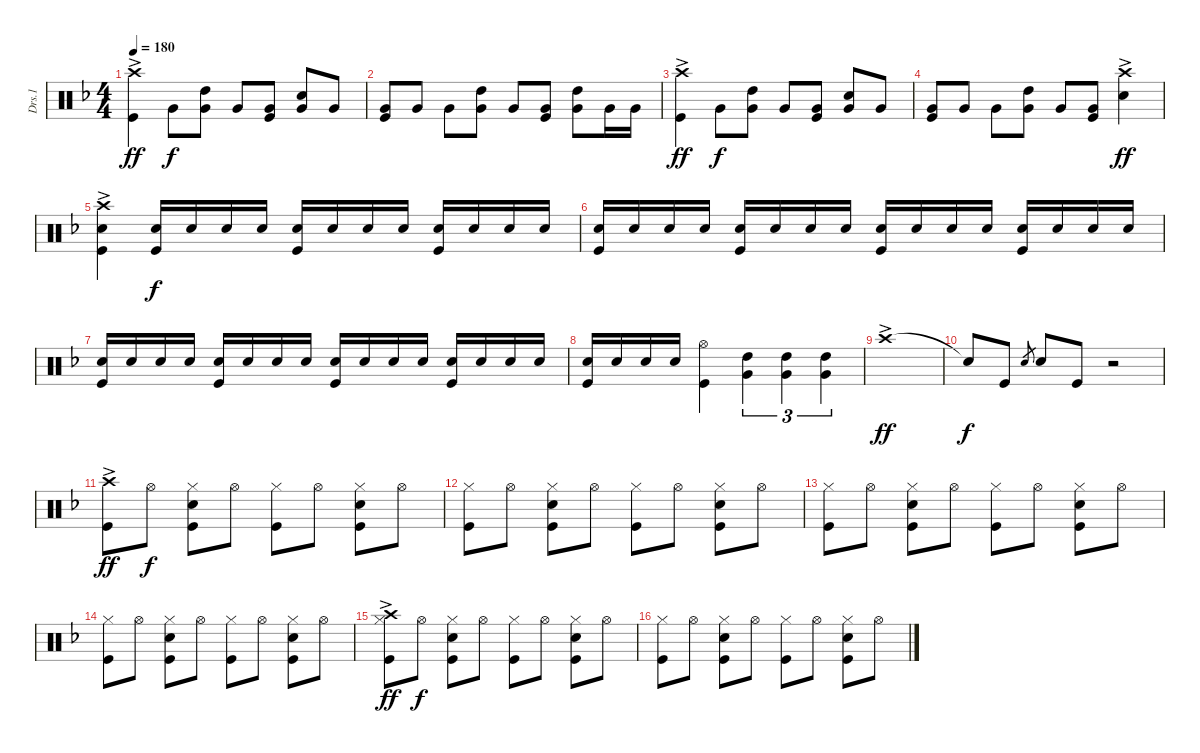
\track ("Drs.1" "Drs.1") {instrument percussion}
\staff {score}
\articulation defaults
\ts (4 4)
\tempo 180
\clef neutral
\ks f
("Crash high (hit)"{ac} "Kick (hit)").4{dy ff} "Very Low Tom (hit)".8{dy f} ("High Tom (hit)" "Very Low Tom (hit)").8 "Very Low Tom (hit)".8 ("Very Low Tom (hit)" "Kick (hit)").8 ("Snare (hit) 2" "Very Low Tom (hit)").8 "Very Low Tom (hit)".8 |
("Very Low Tom (hit)" "Kick (hit)").8 "Very Low Tom (hit)".8 "Very Low Tom (hit)".8 ("High Tom (hit)" "Very Low Tom (hit)").8 "Very Low Tom (hit)".8 ("Very Low Tom (hit)" "Kick (hit)").8 ("High Tom (hit)" "Very Low Tom (hit)").8 "Very Low Tom (hit)".16 "Very Low Tom (hit)".16 |
("Crash high (hit)"{ac} "Kick (hit)").4{dy ff} "Very Low Tom (hit)".8{dy f} ("High Tom (hit)" "Very Low Tom (hit)").8 "Very Low Tom (hit)".8 ("Very Low Tom (hit)" "Kick (hit)").8 ("Snare (hit) 2" "Very Low Tom (hit)").8 "Very Low Tom (hit)".8 |
("Very Low Tom (hit)" "Kick (hit)").8 "Very Low Tom (hit)".8 "Very Low Tom (hit)".8 ("High Tom (hit)" "Very Low Tom (hit)").8 "Very Low Tom (hit)".8 ("Very Low Tom (hit)" "Kick (hit)").8 ("Crash high (hit)"{ac} "Snare (hit) 2").4{dy ff} |
("Crash high (hit)"{ac} "Snare (hit) 2" "Kick (hit)").4 ("Snare (hit) 2" "Kick (hit)").16{dy f} "Snare (hit) 2".16 "Snare (hit) 2".16 "Snare (hit) 2".16 ("Snare (hit) 2" "Kick (hit)").16 "Snare (hit) 2".16 "Snare (hit) 2".16 "Snare (hit) 2".16 ("Snare (hit) 2" "Kick (hit)").16 "Snare (hit) 2".16 "Snare (hit) 2".16 "Snare (hit) 2".16 |
("Snare (hit) 2" "Kick (hit)").16 "Snare (hit) 2".16 "Snare (hit) 2".16 "Snare (hit) 2".16 ("Snare (hit) 2" "Kick (hit)").16 "Snare (hit) 2".16 "Snare (hit) 2".16 "Snare (hit) 2".16 ("Snare (hit) 2" "Kick (hit)").16 "Snare (hit) 2".16 "Snare (hit) 2".16 "Snare (hit) 2".16 ("Snare (hit) 2" "Kick (hit)").16 "Snare (hit) 2".16 "Snare (hit) 2".16 "Snare (hit) 2".16 |
("Snare (hit) 2" "Kick (hit)").16 "Snare (hit) 2".16 "Snare (hit) 2".16 "Snare (hit) 2".16 ("Snare (hit) 2" "Kick (hit)").16 "Snare (hit) 2".16 "Snare (hit) 2".16 "Snare (hit) 2".16 ("Snare (hit) 2" "Kick (hit)").16 "Snare (hit) 2".16 "Snare (hit) 2".16 "Snare (hit) 2".16 ("Snare (hit) 2" "Kick (hit)").16 "Snare (hit) 2".16 "Snare (hit) 2".16 "Snare (hit) 2".16 |
("Snare (hit) 2" "Kick (hit)").16 "Snare (hit) 2".16 "Snare (hit) 2".16 "Snare (hit) 2".16 ("Hi-Hat (open)" "Kick (hit)").4 ("High Tom (hit)" "Very Low Tom (hit)").4{tu (3 2)} ("High Tom (hit)" "Very Low Tom (hit)").4{tu (3 2)} ("High Tom (hit)" "Very Low Tom (hit)").4{tu (3 2)} |
"Crash high (hit)"{ac}.1{dy ff} |
"Snare (hit)"{t}.8{dy f} "Kick (hit)".8 "Snare (hit) 2".8{gr} "Snare (hit) 2".8 "Kick (hit)".8 r.2 |
("Crash high (hit)"{ac} "Kick (hit)").8{dy ff} "Hi-Hat (open)".8{dy f} ("Hi-Hat (closed)" "Snare (hit) 2" "Kick (hit)").8 "Hi-Hat (open)".8 ("Hi-Hat (closed)" "Kick (hit)").8 "Hi-Hat (open)".8 ("Hi-Hat (closed)" "Snare (hit) 2" "Kick (hit)").8 "Hi-Hat (open)".8 |
("Hi-Hat (closed)" "Kick (hit)").8 "Hi-Hat (open)".8 ("Hi-Hat (closed)" "Snare (hit) 2" "Kick (hit)").8 "Hi-Hat (open)".8 ("Hi-Hat (closed)" "Kick (hit)").8 "Hi-Hat (open)".8 ("Hi-Hat (closed)" "Snare (hit) 2" "Kick (hit)").8 "Hi-Hat (open)".8 |
("Hi-Hat (closed)" "Kick (hit)").8 "Hi-Hat (open)".8 ("Hi-Hat (closed)" "Snare (hit) 2" "Kick (hit)").8 "Hi-Hat (open)".8 ("Hi-Hat (closed)" "Kick (hit)").8 "Hi-Hat (open)".8 ("Hi-Hat (closed)" "Snare (hit) 2" "Kick (hit)").8 "Hi-Hat (open)".8 |
("Hi-Hat (closed)" "Kick (hit)").8 "Hi-Hat (open)".8 ("Hi-Hat (closed)" "Snare (hit) 2" "Kick (hit)").8 "Hi-Hat (open)".8 ("Hi-Hat (closed)" "Kick (hit)").8 "Hi-Hat (open)".8 ("Hi-Hat (closed)" "Snare (hit) 2" "Kick (hit)").8 "Hi-Hat (open)".8 |
("Hi-Hat (closed)" "Crash high (hit)"{ac} "Kick (hit)").8{dy ff} "Hi-Hat (open)".8{dy f} ("Hi-Hat (closed)" "Snare (hit) 2" "Kick (hit)").8 "Hi-Hat (open)".8 ("Hi-Hat (closed)" "Kick (hit)").8 "Hi-Hat (open)".8 ("Hi-Hat (closed)" "Snare (hit) 2" "Kick (hit)").8 "Hi-Hat (open)".8 |
("Hi-Hat (closed)" "Kick (hit)").8 "Hi-Hat (open)".8 ("Hi-Hat (closed)" "Snare (hit) 2" "Kick (hit)").8 "Hi-Hat (open)".8 ("Hi-Hat (closed)" "Kick (hit)").8 "Hi-Hat (open)".8 ("Hi-Hat (closed)" "Snare (hit) 2" "Kick (hit)").8 "Hi-Hat (open)".8
